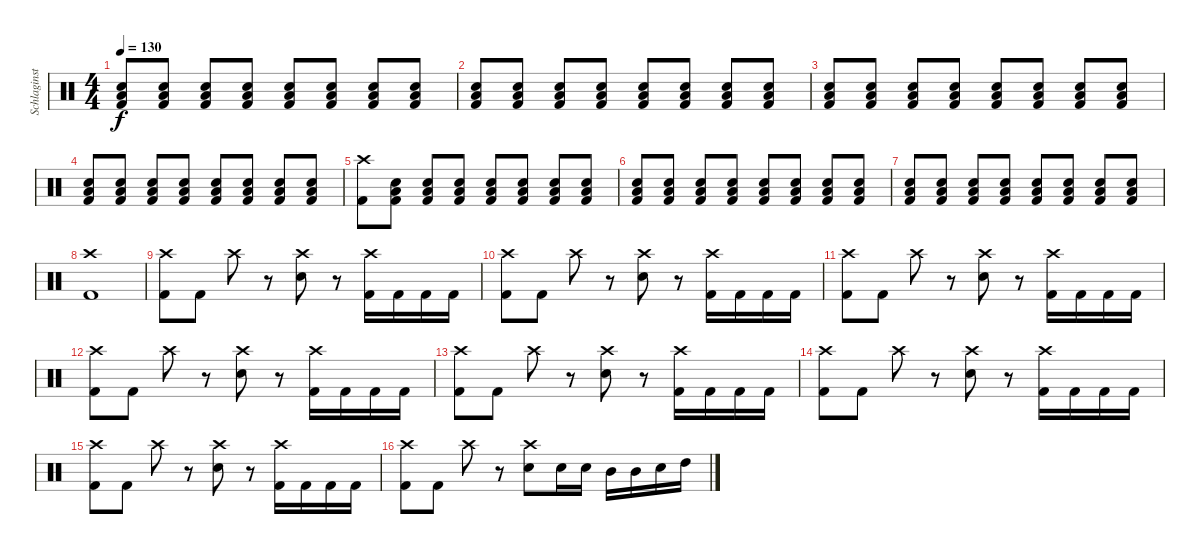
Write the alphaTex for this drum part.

\track ("Schlaginstrumente - Auswahl" "Schlaginst") {instrument percussion}
\staff {score}
\articulation defaults
\ts (4 4)
\tempo 130
\clef neutral
\ks c
("Electric Snare (hit)" "Low Floor Tom (hit)" "Kick (hit) 2").8{dy f volume 2} ("Electric Snare (hit)" "Low Floor Tom (hit)" "Kick (hit) 2").8{volume 13} ("Electric Snare (hit)" "Low Floor Tom (hit)" "Kick (hit) 2").8 ("Electric Snare (hit)" "Low Floor Tom (hit)" "Kick (hit) 2").8 ("Electric Snare (hit)" "Low Floor Tom (hit)" "Kick (hit) 2").8 ("Electric Snare (hit)" "Low Floor Tom (hit)" "Kick (hit) 2").8 ("Electric Snare (hit)" "Low Floor Tom (hit)" "Kick (hit) 2").8 ("Electric Snare (hit)" "Low Floor Tom (hit)" "Kick (hit) 2").8 |
("Electric Snare (hit)" "Low Floor Tom (hit)" "Kick (hit) 2").8 ("Electric Snare (hit)" "Low Floor Tom (hit)" "Kick (hit) 2").8 ("Electric Snare (hit)" "Low Floor Tom (hit)" "Kick (hit) 2").8 ("Electric Snare (hit)" "Low Floor Tom (hit)" "Kick (hit) 2").8 ("Electric Snare (hit)" "Low Floor Tom (hit)" "Kick (hit) 2").8 ("Electric Snare (hit)" "Low Floor Tom (hit)" "Kick (hit) 2").8 ("Electric Snare (hit)" "Low Floor Tom (hit)" "Kick (hit) 2").8 ("Electric Snare (hit)" "Low Floor Tom (hit)" "Kick (hit) 2").8 |
("Electric Snare (hit)" "Low Floor Tom (hit)" "Kick (hit) 2").8 ("Electric Snare (hit)" "Low Floor Tom (hit)" "Kick (hit) 2").8 ("Electric Snare (hit)" "Low Floor Tom (hit)" "Kick (hit) 2").8 ("Electric Snare (hit)" "Low Floor Tom (hit)" "Kick (hit) 2").8 ("Electric Snare (hit)" "Low Floor Tom (hit)" "Kick (hit) 2").8 ("Electric Snare (hit)" "Low Floor Tom (hit)" "Kick (hit) 2").8 ("Electric Snare (hit)" "Low Floor Tom (hit)" "Kick (hit) 2").8 ("Electric Snare (hit)" "Low Floor Tom (hit)" "Kick (hit) 2").8 |
("Electric Snare (hit)" "Low Floor Tom (hit)" "Kick (hit) 2").8 ("Electric Snare (hit)" "Low Floor Tom (hit)" "Kick (hit) 2").8 ("Electric Snare (hit)" "Low Floor Tom (hit)" "Kick (hit) 2").8 ("Electric Snare (hit)" "Low Floor Tom (hit)" "Kick (hit) 2").8 ("Electric Snare (hit)" "Low Floor Tom (hit)" "Kick (hit) 2").8 ("Electric Snare (hit)" "Low Floor Tom (hit)" "Kick (hit) 2").8 ("Electric Snare (hit)" "Low Floor Tom (hit)" "Kick (hit) 2").8 ("Electric Snare (hit)" "Low Floor Tom (hit)" "Kick (hit) 2").8 |
("Crash high (hit)" "Kick (hit) 2").8{volume 13} ("Electric Snare (hit)" "Low Floor Tom (hit)" "Kick (hit) 2").8{volume 7} ("Electric Snare (hit)" "Low Floor Tom (hit)" "Kick (hit) 2").8{volume 13} ("Electric Snare (hit)" "Low Floor Tom (hit)" "Kick (hit) 2").8 ("Electric Snare (hit)" "Low Floor Tom (hit)" "Kick (hit) 2").8 ("Electric Snare (hit)" "Low Floor Tom (hit)" "Kick (hit) 2").8 ("Electric Snare (hit)" "Low Floor Tom (hit)" "Kick (hit) 2").8 ("Electric Snare (hit)" "Low Floor Tom (hit)" "Kick (hit) 2").8 |
("Electric Snare (hit)" "Low Floor Tom (hit)" "Kick (hit) 2").8 ("Electric Snare (hit)" "Low Floor Tom (hit)" "Kick (hit) 2").8 ("Electric Snare (hit)" "Low Floor Tom (hit)" "Kick (hit) 2").8 ("Electric Snare (hit)" "Low Floor Tom (hit)" "Kick (hit) 2").8 ("Electric Snare (hit)" "Low Floor Tom (hit)" "Kick (hit) 2").8 ("Electric Snare (hit)" "Low Floor Tom (hit)" "Kick (hit) 2").8 ("Electric Snare (hit)" "Low Floor Tom (hit)" "Kick (hit) 2").8 ("Electric Snare (hit)" "Low Floor Tom (hit)" "Kick (hit) 2").8 |
("Electric Snare (hit)" "Low Floor Tom (hit)" "Kick (hit) 2").8 ("Electric Snare (hit)" "Low Floor Tom (hit)" "Kick (hit) 2").8 ("Electric Snare (hit)" "Low Floor Tom (hit)" "Kick (hit) 2").8 ("Electric Snare (hit)" "Low Floor Tom (hit)" "Kick (hit) 2").8 ("Electric Snare (hit)" "Low Floor Tom (hit)" "Kick (hit) 2").8 ("Electric Snare (hit)" "Low Floor Tom (hit)" "Kick (hit) 2").8 ("Electric Snare (hit)" "Low Floor Tom (hit)" "Kick (hit) 2").8 ("Electric Snare (hit)" "Low Floor Tom (hit)" "Kick (hit) 2").8 |
("Crash high (hit)" "Kick (hit) 2").1 |
("Crash high (hit)" "Kick (hit) 2").8 "Kick (hit) 2".8 "Crash high (hit)".8 r.8 ("Crash high (hit)" "Electric Snare (hit)").8 r.8 ("Crash high (hit)" "Kick (hit) 2").16 "Kick (hit) 2".16 "Kick (hit) 2".16 "Kick (hit) 2".16 |
("Crash high (hit)" "Kick (hit) 2").8 "Kick (hit) 2".8 "Crash high (hit)".8 r.8 ("Crash high (hit)" "Electric Snare (hit)").8 r.8 ("Crash high (hit)" "Kick (hit) 2").16 "Kick (hit) 2".16 "Kick (hit) 2".16 "Kick (hit) 2".16 |
("Crash high (hit)" "Kick (hit) 2").8 "Kick (hit) 2".8 "Crash high (hit)".8 r.8 ("Crash high (hit)" "Electric Snare (hit)").8 r.8 ("Crash high (hit)" "Kick (hit) 2").16 "Kick (hit) 2".16 "Kick (hit) 2".16 "Kick (hit) 2".16 |
("Crash high (hit)" "Kick (hit) 2").8 "Kick (hit) 2".8 "Crash high (hit)".8 r.8 ("Crash high (hit)" "Electric Snare (hit)").8 r.8 ("Crash high (hit)" "Kick (hit) 2").16 "Kick (hit) 2".16 "Kick (hit) 2".16 "Kick (hit) 2".16 |
("Crash high (hit)" "Kick (hit) 2").8 "Kick (hit) 2".8 "Crash high (hit)".8 r.8 ("Crash high (hit)" "Electric Snare (hit)").8 r.8 ("Crash high (hit)" "Kick (hit) 2").16 "Kick (hit) 2".16 "Kick (hit) 2".16 "Kick (hit) 2".16 |
("Crash high (hit)" "Kick (hit) 2").8 "Kick (hit) 2".8 "Crash high (hit)".8 r.8 ("Crash high (hit)" "Electric Snare (hit)").8 r.8 ("Crash high (hit)" "Kick (hit) 2").16 "Kick (hit) 2".16 "Kick (hit) 2".16 "Kick (hit) 2".16 |
("Crash high (hit)" "Kick (hit) 2").8 "Kick (hit) 2".8 "Crash high (hit)".8 r.8 ("Crash high (hit)" "Electric Snare (hit)").8 r.8 ("Crash high (hit)" "Kick (hit) 2").16 "Kick (hit) 2".16 "Kick (hit) 2".16 "Kick (hit) 2".16 |
("Crash high (hit)" "Kick (hit) 2").8 "Kick (hit) 2".8 "Crash high (hit)".8 r.8 ("Crash high (hit)" "Electric Snare (hit)").8 "Electric Snare (hit)".16 "Electric Snare (hit)".16 "Mid Tom (hit)".16 "Mid Tom (hit)".16 "Electric Snare (hit)".16 "High Tom (hit)".16
